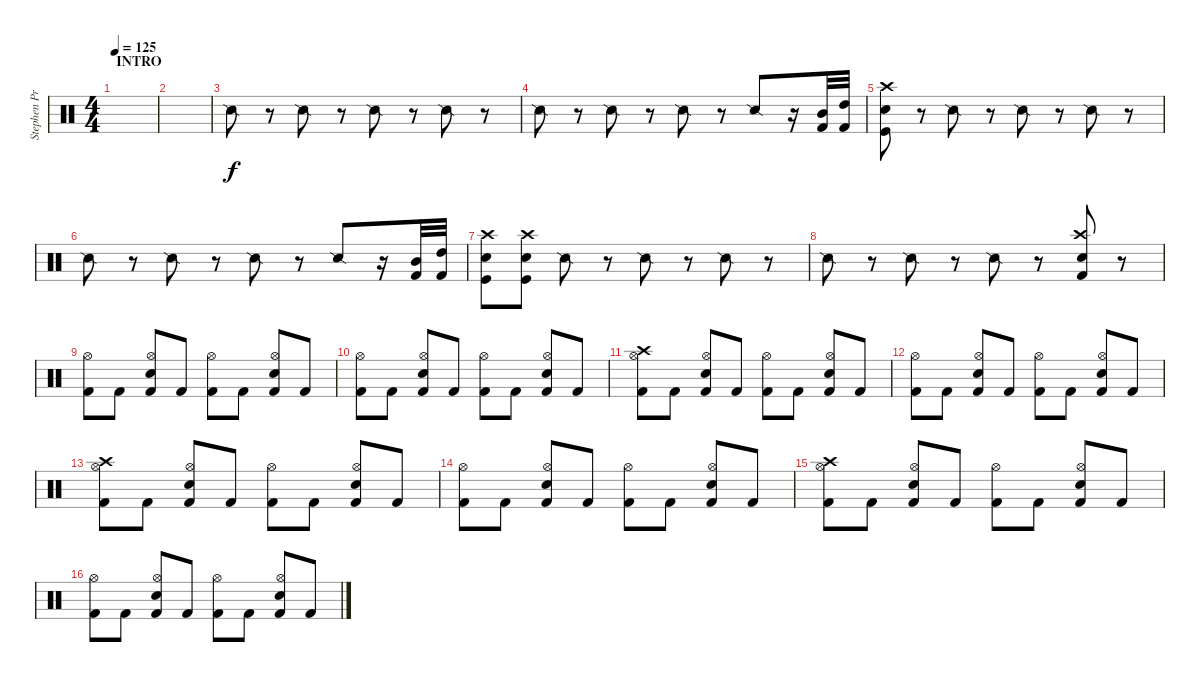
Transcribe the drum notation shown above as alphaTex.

\track ("Stephen Priestly" "Stephen Pr") {instrument percussion}
\staff {score}
\articulation defaults
\ts (4 4)
\section ("" "INTRO")
\tempo 125
\clef neutral
\ks c
|
|
"Snare (side stick) 2".8 r.8 "Snare (side stick) 2".8 r.8 "Snare (side stick) 2".8 r.8 "Snare (side stick) 2".8 r.8 |
"Snare (side stick) 2".8 r.8 "Snare (side stick) 2".8 r.8 "Snare (side stick) 2".8 r.8 "Snare (side stick) 2".8 r.16 ("Mid Tom (hit)" "Kick (hit) 2").32 ("High Tom (hit)" "Kick (hit) 2").32 |
("Crash high (hit)" "Electric Snare (hit)" "Kick (hit)").8 r.8 "Snare (side stick) 2".8 r.8 "Snare (side stick) 2".8 r.8 "Snare (side stick) 2".8 r.8 |
"Snare (side stick) 2".8 r.8 "Snare (side stick) 2".8 r.8 "Snare (side stick) 2".8 r.8 "Snare (side stick) 2".8 r.16 ("Mid Tom (hit)" "Kick (hit) 2").32 ("High Tom (hit)" "Kick (hit) 2").32 |
("Crash high (hit)" "Electric Snare (hit)" "Kick (hit)").8 ("Crash high (hit)" "Electric Snare (hit)" "Kick (hit)").8 "Snare (side stick) 2".8 r.8 "Snare (side stick) 2".8 r.8 "Snare (side stick) 2".8 r.8 |
"Snare (side stick) 2".8 r.8 "Snare (side stick) 2".8 r.8 "Snare (side stick) 2".8 r.8 ("Crash high (hit)" "Electric Snare (hit)" "Kick (hit) 2").8 r.8 |
("Hi-Hat (open)" "Kick (hit) 2").8 "Kick (hit) 2".8 ("Hi-Hat (open)" "Snare (hit) 2" "Kick (hit) 2").8 "Kick (hit) 2".8 ("Hi-Hat (open)" "Kick (hit) 2").8 "Kick (hit) 2".8 ("Hi-Hat (open)" "Snare (hit) 2" "Kick (hit) 2").8 "Kick (hit) 2".8 |
("Hi-Hat (open)" "Kick (hit) 2").8 "Kick (hit) 2".8 ("Hi-Hat (open)" "Snare (hit) 2" "Kick (hit) 2").8 "Kick (hit) 2".8 ("Hi-Hat (open)" "Kick (hit) 2").8 "Kick (hit) 2".8 ("Hi-Hat (open)" "Snare (hit) 2" "Kick (hit) 2").8 "Kick (hit) 2".8 |
("Hi-Hat (open)" "Crash high (hit)" "Kick (hit) 2").8 "Kick (hit) 2".8 ("Hi-Hat (open)" "Snare (hit) 2" "Kick (hit) 2").8 "Kick (hit) 2".8 ("Hi-Hat (open)" "Kick (hit) 2").8 "Kick (hit) 2".8 ("Hi-Hat (open)" "Snare (hit) 2" "Kick (hit) 2").8 "Kick (hit) 2".8 |
("Hi-Hat (open)" "Kick (hit) 2").8 "Kick (hit) 2".8 ("Hi-Hat (open)" "Snare (hit) 2" "Kick (hit) 2").8 "Kick (hit) 2".8 ("Hi-Hat (open)" "Kick (hit) 2").8 "Kick (hit) 2".8 ("Hi-Hat (open)" "Snare (hit) 2" "Kick (hit) 2").8 "Kick (hit) 2".8 |
("Hi-Hat (open)" "Crash high (hit)" "Kick (hit) 2").8 "Kick (hit) 2".8 ("Hi-Hat (open)" "Snare (hit) 2" "Kick (hit) 2").8 "Kick (hit) 2".8 ("Hi-Hat (open)" "Kick (hit) 2").8 "Kick (hit) 2".8 ("Hi-Hat (open)" "Snare (hit) 2" "Kick (hit) 2").8 "Kick (hit) 2".8 |
("Hi-Hat (open)" "Kick (hit) 2").8 "Kick (hit) 2".8 ("Hi-Hat (open)" "Snare (hit) 2" "Kick (hit) 2").8 "Kick (hit) 2".8 ("Hi-Hat (open)" "Kick (hit) 2").8 "Kick (hit) 2".8 ("Hi-Hat (open)" "Snare (hit) 2" "Kick (hit) 2").8 "Kick (hit) 2".8 |
("Hi-Hat (open)" "Crash high (hit)" "Kick (hit) 2").8 "Kick (hit) 2".8 ("Hi-Hat (open)" "Snare (hit) 2" "Kick (hit) 2").8 "Kick (hit) 2".8 ("Hi-Hat (open)" "Kick (hit) 2").8 "Kick (hit) 2".8 ("Hi-Hat (open)" "Snare (hit) 2" "Kick (hit) 2").8 "Kick (hit) 2".8 |
("Hi-Hat (open)" "Kick (hit) 2").8 "Kick (hit) 2".8 ("Hi-Hat (open)" "Snare (hit) 2" "Kick (hit) 2").8 "Kick (hit) 2".8 ("Hi-Hat (open)" "Kick (hit) 2").8 "Kick (hit) 2".8 ("Hi-Hat (open)" "Snare (hit) 2" "Kick (hit) 2").8 "Kick (hit) 2".8
